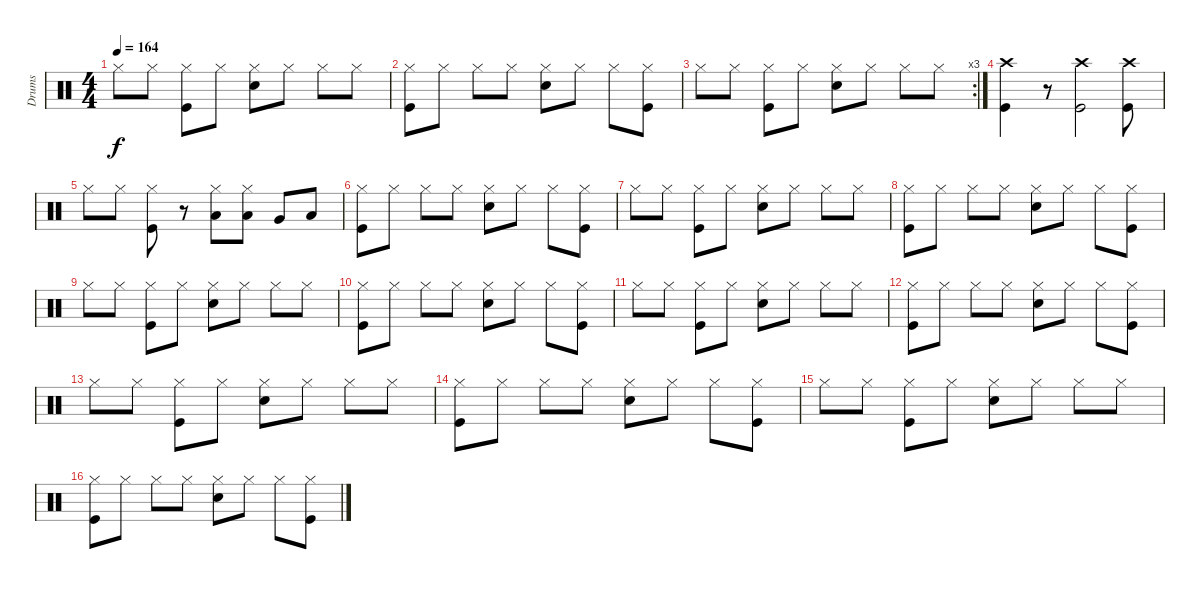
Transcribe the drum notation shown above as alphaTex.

\track ("Drums" "Drums") {instrument percussion}
\staff {score}
\articulation defaults
\ts (4 4)
\tempo 164
\clef neutral
\ks c "Hi-Hat (closed)".8{dy f} "Hi-Hat (closed)".8
("Kick (hit)" "Hi-Hat (closed)").8 "Hi-Hat (closed)".8 ("Snare (hit) 2" "Hi-Hat (closed)").8 "Hi-Hat (closed)".8 "Hi-Hat (closed)".8 "Hi-Hat (closed)".8 |
("Kick (hit)" "Hi-Hat (closed)").8 "Hi-Hat (closed)".8 "Hi-Hat (closed)".8 "Hi-Hat (closed)".8 ("Snare (hit) 2" "Hi-Hat (closed)").8 "Hi-Hat (closed)".8 "Hi-Hat (closed)".8 ("Kick (hit)" "Hi-Hat (closed)").8 |
\rc 3 "Hi-Hat (closed)".8 "Hi-Hat (closed)".8
("Kick (hit)" "Hi-Hat (closed)").8 "Hi-Hat (closed)".8 ("Snare (hit) 2" "Hi-Hat (closed)").8 "Hi-Hat (closed)".8 "Hi-Hat (closed)".8 "Hi-Hat (closed)".8 |
("Crash high (hit)" "Kick (hit)").4 r.8 ("Crash high (hit)" "Kick (hit)").2 ("Crash high (hit)" "Kick (hit)").8 |
"Hi-Hat (closed)".8 "Hi-Hat (closed)".8 ("Kick (hit)" "Hi-Hat (closed)").8 r.8 ("Low Tom (hit)" "Hi-Hat (closed)").8 ("Low Tom (hit)" "Hi-Hat (closed)").8 "Very Low Tom (hit)".8 "Low Floor Tom (hit)".8 |
("Kick (hit)" "Hi-Hat (closed)").8 "Hi-Hat (closed)".8 "Hi-Hat (closed)".8 "Hi-Hat (closed)".8 ("Snare (hit) 2" "Hi-Hat (closed)").8 "Hi-Hat (closed)".8 "Hi-Hat (closed)".8 ("Kick (hit)" "Hi-Hat (closed)").8 |
"Hi-Hat (closed)".8 "Hi-Hat (closed)".8 ("Kick (hit)" "Hi-Hat (closed)").8 "Hi-Hat (closed)".8 ("Snare (hit) 2" "Hi-Hat (closed)").8 "Hi-Hat (closed)".8 "Hi-Hat (closed)".8 "Hi-Hat (closed)".8 |
("Kick (hit)" "Hi-Hat (closed)").8 "Hi-Hat (closed)".8 "Hi-Hat (closed)".8 "Hi-Hat (closed)".8 ("Snare (hit) 2" "Hi-Hat (closed)").8 "Hi-Hat (closed)".8 "Hi-Hat (closed)".8 ("Kick (hit)" "Hi-Hat (closed)").8 |
"Hi-Hat (closed)".8 "Hi-Hat (closed)".8 ("Kick (hit)" "Hi-Hat (closed)").8 "Hi-Hat (closed)".8 ("Snare (hit) 2" "Hi-Hat (closed)").8 "Hi-Hat (closed)".8 "Hi-Hat (closed)".8 "Hi-Hat (closed)".8 |
("Kick (hit)" "Hi-Hat (closed)").8 "Hi-Hat (closed)".8 "Hi-Hat (closed)".8 "Hi-Hat (closed)".8 ("Snare (hit) 2" "Hi-Hat (closed)").8 "Hi-Hat (closed)".8 "Hi-Hat (closed)".8 ("Kick (hit)" "Hi-Hat (closed)").8 |
"Hi-Hat (closed)".8 "Hi-Hat (closed)".8 ("Kick (hit)" "Hi-Hat (closed)").8 "Hi-Hat (closed)".8 ("Snare (hit) 2" "Hi-Hat (closed)").8 "Hi-Hat (closed)".8 "Hi-Hat (closed)".8 "Hi-Hat (closed)".8 |
("Kick (hit)" "Hi-Hat (closed)").8 "Hi-Hat (closed)".8 "Hi-Hat (closed)".8 "Hi-Hat (closed)".8 ("Snare (hit) 2" "Hi-Hat (closed)").8 "Hi-Hat (closed)".8 "Hi-Hat (closed)".8 ("Kick (hit)" "Hi-Hat (closed)").8 |
"Hi-Hat (closed)".8 "Hi-Hat (closed)".8 ("Kick (hit)" "Hi-Hat (closed)").8 "Hi-Hat (closed)".8 ("Snare (hit) 2" "Hi-Hat (closed)").8 "Hi-Hat (closed)".8 "Hi-Hat (closed)".8 "Hi-Hat (closed)".8 |
("Kick (hit)" "Hi-Hat (closed)").8 "Hi-Hat (closed)".8 "Hi-Hat (closed)".8 "Hi-Hat (closed)".8 ("Snare (hit) 2" "Hi-Hat (closed)").8 "Hi-Hat (closed)".8 "Hi-Hat (closed)".8 ("Kick (hit)" "Hi-Hat (closed)").8 |
"Hi-Hat (closed)".8 "Hi-Hat (closed)".8 ("Kick (hit)" "Hi-Hat (closed)").8 "Hi-Hat (closed)".8 ("Snare (hit) 2" "Hi-Hat (closed)").8 "Hi-Hat (closed)".8 "Hi-Hat (closed)".8 "Hi-Hat (closed)".8 |
("Kick (hit)" "Hi-Hat (closed)").8 "Hi-Hat (closed)".8 "Hi-Hat (closed)".8 "Hi-Hat (closed)".8 ("Snare (hit) 2" "Hi-Hat (closed)").8 "Hi-Hat (closed)".8 "Hi-Hat (closed)".8 ("Kick (hit)" "Hi-Hat (closed)").8
